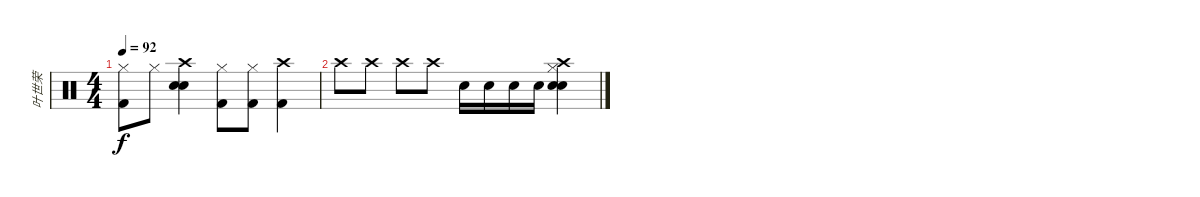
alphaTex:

\track ("叶世荣" "叶世荣") {instrument percussion}
\staff {score}
\articulation defaults
\ts (4 4)
\tempo 92
\clef neutral
\ks c
("Hi-Hat (closed)" "Kick (hit) 2").8{dy f} "Hi-Hat (closed)".8 ("Crash high (hit)" "Snare (hit) 2" "Electric Snare (hit)").4 ("Hi-Hat (closed)" "Kick (hit) 2").8 ("Hi-Hat (closed)" "Kick (hit) 2").8 ("Crash high (hit)" "Kick (hit) 2").4 |
"Crash high (hit)".8 "Crash high (hit)".8 "Crash high (hit)".8 "Crash high (hit)".8 "Electric Snare (hit)".16 "Electric Snare (hit)".16 "Electric Snare (hit)".16 "Electric Snare (hit)".16 ("Hi-Hat (closed)" "Crash high (hit)" "Electric Snare (hit)" "Snare (hit) 2").4
